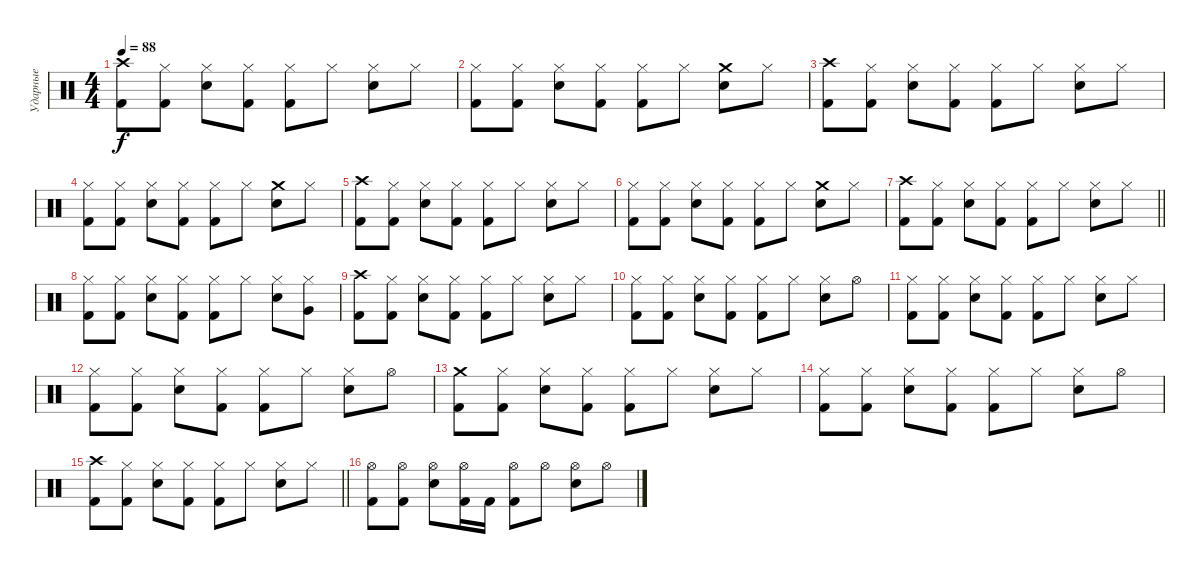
\track ("Ударные" "Ударные") {instrument percussion}
\staff {score}
\articulation defaults
\ts (4 4)
\tempo 88
\clef neutral
\ks c
("Crash high (hit)" "Kick (hit) 2").8{dy f} ("Hi-Hat (closed)" "Kick (hit) 2").8 ("Hi-Hat (closed)" "Snare (hit) 2").8 ("Hi-Hat (closed)" "Kick (hit) 2").8 ("Hi-Hat (closed)" "Kick (hit) 2").8 "Hi-Hat (closed)".8 ("Hi-Hat (closed)" "Snare (hit) 2").8 "Hi-Hat (closed)".8 |
("Hi-Hat (closed)" "Kick (hit) 2").8 ("Hi-Hat (closed)" "Kick (hit) 2").8 ("Hi-Hat (closed)" "Snare (hit) 2").8 ("Hi-Hat (closed)" "Kick (hit) 2").8 ("Hi-Hat (closed)" "Kick (hit) 2").8 "Hi-Hat (closed)".8 ("Crash medium (hit)" "Snare (hit) 2").8 "Hi-Hat (closed)".8 |
("Crash high (hit)" "Kick (hit) 2").8 ("Hi-Hat (closed)" "Kick (hit) 2").8 ("Hi-Hat (closed)" "Snare (hit) 2").8 ("Hi-Hat (closed)" "Kick (hit) 2").8 ("Hi-Hat (closed)" "Kick (hit) 2").8 "Hi-Hat (closed)".8 ("Hi-Hat (closed)" "Snare (hit) 2").8 "Hi-Hat (closed)".8 |
("Hi-Hat (closed)" "Kick (hit) 2").8 ("Hi-Hat (closed)" "Kick (hit) 2").8 ("Hi-Hat (closed)" "Snare (hit) 2").8 ("Hi-Hat (closed)" "Kick (hit) 2").8 ("Hi-Hat (closed)" "Kick (hit) 2").8 "Hi-Hat (closed)".8 ("Crash medium (hit)" "Snare (hit) 2").8 "Hi-Hat (closed)".8 |
("Crash high (hit)" "Kick (hit) 2").8 ("Hi-Hat (closed)" "Kick (hit) 2").8 ("Hi-Hat (closed)" "Snare (hit) 2").8 ("Hi-Hat (closed)" "Kick (hit) 2").8 ("Hi-Hat (closed)" "Kick (hit) 2").8 "Hi-Hat (closed)".8 ("Hi-Hat (closed)" "Snare (hit) 2").8 "Hi-Hat (closed)".8 |
("Hi-Hat (closed)" "Kick (hit) 2").8 ("Hi-Hat (closed)" "Kick (hit) 2").8 ("Hi-Hat (closed)" "Snare (hit) 2").8 ("Hi-Hat (closed)" "Kick (hit) 2").8 ("Hi-Hat (closed)" "Kick (hit) 2").8 "Hi-Hat (closed)".8 ("Crash medium (hit)" "Snare (hit) 2").8 "Hi-Hat (closed)".8 |
\barLineRight lightlight
("Crash high (hit)" "Kick (hit) 2").8 ("Hi-Hat (closed)" "Kick (hit) 2").8 ("Hi-Hat (closed)" "Snare (hit) 2").8 ("Hi-Hat (closed)" "Kick (hit) 2").8 ("Hi-Hat (closed)" "Kick (hit) 2").8 "Hi-Hat (closed)".8 ("Hi-Hat (closed)" "Snare (hit) 2").8 "Hi-Hat (closed)".8 |
("Hi-Hat (closed)" "Kick (hit) 2").8 ("Hi-Hat (closed)" "Kick (hit) 2").8 ("Hi-Hat (closed)" "Snare (hit) 2").8 ("Hi-Hat (closed)" "Kick (hit) 2").8 ("Hi-Hat (closed)" "Kick (hit) 2").8 "Hi-Hat (closed)".8 ("Hi-Hat (closed)" "Snare (hit) 2").8 ("Hi-Hat (closed)" "Very Low Tom (hit)").8 |
("Crash high (hit)" "Kick (hit) 2").8 ("Hi-Hat (closed)" "Kick (hit) 2").8 ("Hi-Hat (closed)" "Snare (hit) 2").8 ("Hi-Hat (closed)" "Kick (hit) 2").8 ("Hi-Hat (closed)" "Kick (hit) 2").8 "Hi-Hat (closed)".8 ("Hi-Hat (closed)" "Snare (hit) 2").8 "Hi-Hat (closed)".8 |
("Hi-Hat (closed)" "Kick (hit) 2").8 ("Hi-Hat (closed)" "Kick (hit) 2").8 ("Hi-Hat (closed)" "Snare (hit) 2").8 ("Hi-Hat (closed)" "Kick (hit) 2").8 ("Hi-Hat (closed)" "Kick (hit) 2").8 "Hi-Hat (closed)".8 ("Hi-Hat (closed)" "Snare (hit) 2").8 "Hi-Hat (open)".8 |
("Hi-Hat (closed)" "Kick (hit) 2").8 ("Hi-Hat (closed)" "Kick (hit) 2").8 ("Hi-Hat (closed)" "Snare (hit) 2").8 ("Hi-Hat (closed)" "Kick (hit) 2").8 ("Hi-Hat (closed)" "Kick (hit) 2").8 "Hi-Hat (closed)".8 ("Hi-Hat (closed)" "Snare (hit) 2").8 "Hi-Hat (closed)".8 |
("Hi-Hat (closed)" "Kick (hit) 2").8 ("Hi-Hat (closed)" "Kick (hit) 2").8 ("Hi-Hat (closed)" "Snare (hit) 2").8 ("Hi-Hat (closed)" "Kick (hit) 2").8 ("Hi-Hat (closed)" "Kick (hit) 2").8 "Hi-Hat (closed)".8 ("Hi-Hat (closed)" "Snare (hit) 2").8 "Hi-Hat (open)".8 |
("Crash medium (hit)" "Kick (hit) 2").8 ("Hi-Hat (closed)" "Kick (hit) 2").8 ("Hi-Hat (closed)" "Snare (hit) 2").8 ("Hi-Hat (closed)" "Kick (hit) 2").8 ("Hi-Hat (closed)" "Kick (hit) 2").8 "Hi-Hat (closed)".8 ("Hi-Hat (closed)" "Snare (hit) 2").8 "Hi-Hat (closed)".8 |
("Hi-Hat (closed)" "Kick (hit) 2").8 ("Hi-Hat (closed)" "Kick (hit) 2").8 ("Hi-Hat (closed)" "Snare (hit) 2").8 ("Hi-Hat (closed)" "Kick (hit) 2").8 ("Hi-Hat (closed)" "Kick (hit) 2").8 "Hi-Hat (closed)".8 ("Hi-Hat (closed)" "Snare (hit) 2").8 "Hi-Hat (open)".8 |
\barLineRight lightlight
("Crash high (hit)" "Kick (hit) 2").8 ("Hi-Hat (closed)" "Kick (hit) 2").8 ("Hi-Hat (closed)" "Snare (hit) 2").8 ("Hi-Hat (closed)" "Kick (hit) 2").8 ("Hi-Hat (closed)" "Kick (hit) 2").8 "Hi-Hat (closed)".8 ("Hi-Hat (closed)" "Snare (hit) 2").8 "Hi-Hat (closed)".8 |
("Hi-Hat (open)" "Kick (hit) 2").8 ("Hi-Hat (open)" "Kick (hit) 2").8 ("Hi-Hat (open)" "Snare (hit) 2").8 ("Hi-Hat (open)" "Kick (hit) 2").16 "Kick (hit) 2".16 ("Hi-Hat (open)" "Kick (hit) 2").8 "Hi-Hat (open)".8 ("Hi-Hat (open)" "Snare (hit) 2").8 "Hi-Hat (open)".8
